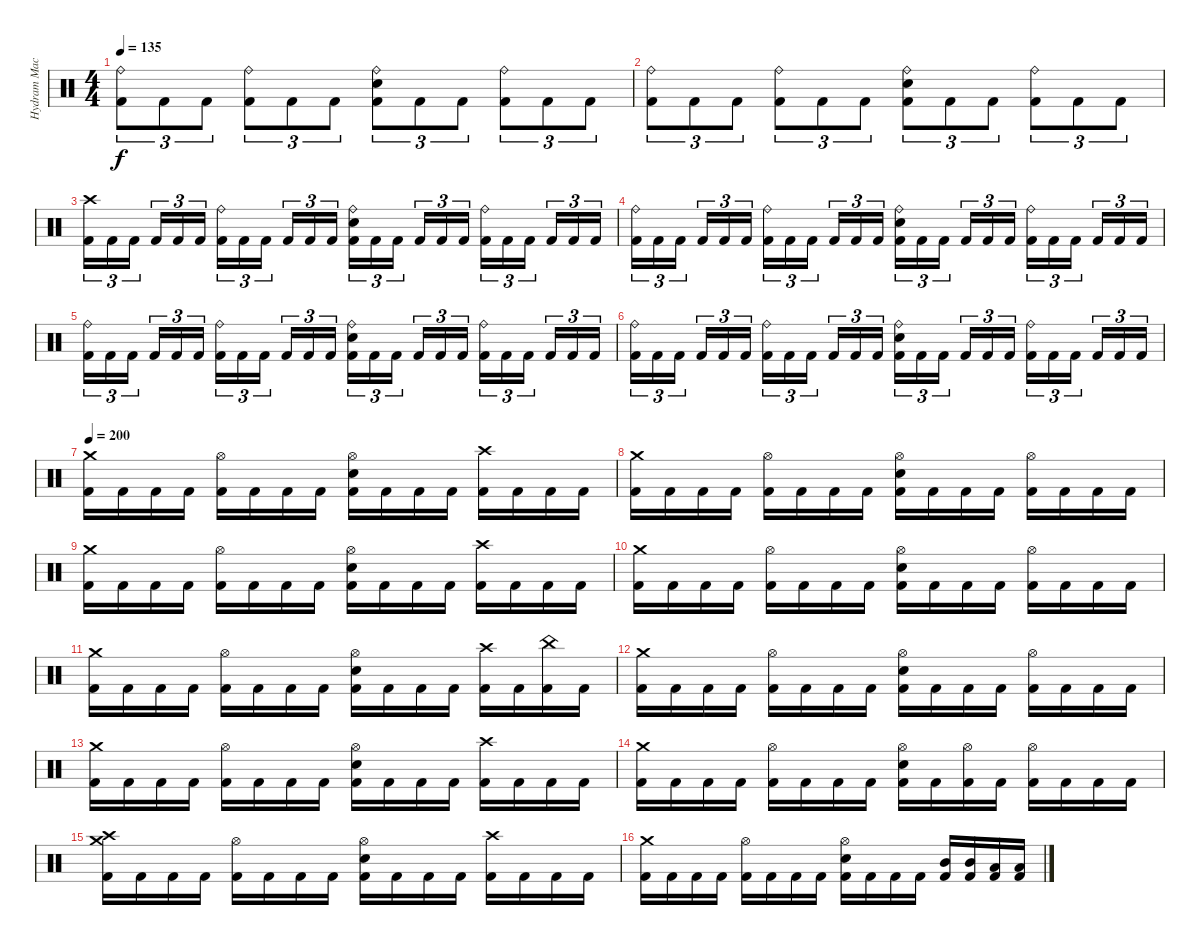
\track ("Hydram Machine" "Hydram Mac") {instrument percussion}
\staff {score}
\articulation defaults
\ts (4 4)
\tempo 135
\clef neutral
\ks c
("Ride (bell)" "Kick (hit) 2").8{tu (3 2) dy f} "Kick (hit) 2".8{tu (3 2)} "Kick (hit) 2".8{tu (3 2)} ("Ride (bell)" "Kick (hit) 2").8{tu (3 2)} "Kick (hit) 2".8{tu (3 2)} "Kick (hit) 2".8{tu (3 2)} ("Ride (bell)" "Electric Snare (hit)" "Kick (hit) 2").8{tu (3 2)} "Kick (hit) 2".8{tu (3 2)} "Kick (hit) 2".8{tu (3 2)} ("Ride (bell)" "Kick (hit) 2").8{tu (3 2)} "Kick (hit) 2".8{tu (3 2)} "Kick (hit) 2".8{tu (3 2)} |
("Ride (bell)" "Kick (hit) 2").8{tu (3 2)} "Kick (hit) 2".8{tu (3 2)} "Kick (hit) 2".8{tu (3 2)} ("Ride (bell)" "Kick (hit) 2").8{tu (3 2)} "Kick (hit) 2".8{tu (3 2)} "Kick (hit) 2".8{tu (3 2)} ("Ride (bell)" "Electric Snare (hit)" "Kick (hit) 2").8{tu (3 2)} "Kick (hit) 2".8{tu (3 2)} "Kick (hit) 2".8{tu (3 2)} ("Ride (bell)" "Kick (hit) 2").8{tu (3 2)} "Kick (hit) 2".8{tu (3 2)} "Kick (hit) 2".8{tu (3 2)} |
("Crash high (hit)" "Kick (hit) 2").16{tu (3 2)} "Kick (hit) 2".16{tu (3 2)} "Kick (hit) 2".16{tu (3 2) beam splitsecondary} "Kick (hit) 2".16{tu (3 2)} "Kick (hit) 2".16{tu (3 2)} "Kick (hit) 2".16{tu (3 2)} ("Ride (bell)" "Kick (hit) 2").16{tu (3 2)} "Kick (hit) 2".16{tu (3 2)} "Kick (hit) 2".16{tu (3 2) beam splitsecondary} "Kick (hit) 2".16{tu (3 2)} "Kick (hit) 2".16{tu (3 2)} "Kick (hit) 2".16{tu (3 2)} ("Ride (bell)" "Electric Snare (hit)" "Kick (hit) 2").16{tu (3 2)} "Kick (hit) 2".16{tu (3 2)} "Kick (hit) 2".16{tu (3 2) beam splitsecondary} "Kick (hit) 2".16{tu (3 2)} "Kick (hit) 2".16{tu (3 2)} "Kick (hit) 2".16{tu (3 2)} ("Ride (bell)" "Kick (hit) 2").16{tu (3 2)} "Kick (hit) 2".16{tu (3 2)} "Kick (hit) 2".16{tu (3 2) beam splitsecondary} "Kick (hit) 2".16{tu (3 2)} "Kick (hit) 2".16{tu (3 2)} "Kick (hit) 2".16{tu (3 2)} |
("Ride (bell)" "Kick (hit) 2").16{tu (3 2)} "Kick (hit) 2".16{tu (3 2)} "Kick (hit) 2".16{tu (3 2) beam splitsecondary} "Kick (hit) 2".16{tu (3 2)} "Kick (hit) 2".16{tu (3 2)} "Kick (hit) 2".16{tu (3 2)} ("Ride (bell)" "Kick (hit) 2").16{tu (3 2)} "Kick (hit) 2".16{tu (3 2)} "Kick (hit) 2".16{tu (3 2) beam splitsecondary} "Kick (hit) 2".16{tu (3 2)} "Kick (hit) 2".16{tu (3 2)} "Kick (hit) 2".16{tu (3 2)} ("Ride (bell)" "Electric Snare (hit)" "Kick (hit) 2").16{tu (3 2)} "Kick (hit) 2".16{tu (3 2)} "Kick (hit) 2".16{tu (3 2) beam splitsecondary} "Kick (hit) 2".16{tu (3 2)} "Kick (hit) 2".16{tu (3 2)} "Kick (hit) 2".16{tu (3 2)} ("Ride (bell)" "Kick (hit) 2").16{tu (3 2)} "Kick (hit) 2".16{tu (3 2)} "Kick (hit) 2".16{tu (3 2) beam splitsecondary} "Kick (hit) 2".16{tu (3 2)} "Kick (hit) 2".16{tu (3 2)} "Kick (hit) 2".16{tu (3 2)} |
("Ride (bell)" "Kick (hit) 2").16{tu (3 2)} "Kick (hit) 2".16{tu (3 2)} "Kick (hit) 2".16{tu (3 2) beam splitsecondary} "Kick (hit) 2".16{tu (3 2)} "Kick (hit) 2".16{tu (3 2)} "Kick (hit) 2".16{tu (3 2)} ("Ride (bell)" "Kick (hit) 2").16{tu (3 2)} "Kick (hit) 2".16{tu (3 2)} "Kick (hit) 2".16{tu (3 2) beam splitsecondary} "Kick (hit) 2".16{tu (3 2)} "Kick (hit) 2".16{tu (3 2)} "Kick (hit) 2".16{tu (3 2)} ("Ride (bell)" "Electric Snare (hit)" "Kick (hit) 2").16{tu (3 2)} "Kick (hit) 2".16{tu (3 2)} "Kick (hit) 2".16{tu (3 2) beam splitsecondary} "Kick (hit) 2".16{tu (3 2)} "Kick (hit) 2".16{tu (3 2)} "Kick (hit) 2".16{tu (3 2)} ("Ride (bell)" "Kick (hit) 2").16{tu (3 2)} "Kick (hit) 2".16{tu (3 2)} "Kick (hit) 2".16{tu (3 2) beam splitsecondary} "Kick (hit) 2".16{tu (3 2)} "Kick (hit) 2".16{tu (3 2)} "Kick (hit) 2".16{tu (3 2)} |
("Ride (bell)" "Kick (hit) 2").16{tu (3 2)} "Kick (hit) 2".16{tu (3 2)} "Kick (hit) 2".16{tu (3 2) beam splitsecondary} "Kick (hit) 2".16{tu (3 2)} "Kick (hit) 2".16{tu (3 2)} "Kick (hit) 2".16{tu (3 2)} ("Ride (bell)" "Kick (hit) 2").16{tu (3 2)} "Kick (hit) 2".16{tu (3 2)} "Kick (hit) 2".16{tu (3 2) beam splitsecondary} "Kick (hit) 2".16{tu (3 2)} "Kick (hit) 2".16{tu (3 2)} "Kick (hit) 2".16{tu (3 2)} ("Ride (bell)" "Electric Snare (hit)" "Kick (hit) 2").16{tu (3 2)} "Kick (hit) 2".16{tu (3 2)} "Kick (hit) 2".16{tu (3 2) beam splitsecondary} "Kick (hit) 2".16{tu (3 2)} "Kick (hit) 2".16{tu (3 2)} "Kick (hit) 2".16{tu (3 2)} ("Ride (bell)" "Kick (hit) 2").16{tu (3 2)} "Kick (hit) 2".16{tu (3 2)} "Kick (hit) 2".16{tu (3 2) beam splitsecondary} "Kick (hit) 2".16{tu (3 2)} "Kick (hit) 2".16{tu (3 2)} "Kick (hit) 2".16{tu (3 2)} |
\tempo 200
("Crash medium (hit)" "Kick (hit) 2").16 "Kick (hit) 2".16 "Kick (hit) 2".16 "Kick (hit) 2".16 ("Hi-Hat (open)" "Kick (hit) 2").16 "Kick (hit) 2".16 "Kick (hit) 2".16 "Kick (hit) 2".16 ("Hi-Hat (open)" "Electric Snare (hit)" "Kick (hit) 2").16 "Kick (hit) 2".16 "Kick (hit) 2".16 "Kick (hit) 2".16 ("Crash high (hit)" "Kick (hit) 2").16 "Kick (hit) 2".16 "Kick (hit) 2".16 "Kick (hit) 2".16 |
("Crash medium (hit)" "Kick (hit) 2").16 "Kick (hit) 2".16 "Kick (hit) 2".16 "Kick (hit) 2".16 ("Hi-Hat (open)" "Kick (hit) 2").16 "Kick (hit) 2".16 "Kick (hit) 2".16 "Kick (hit) 2".16 ("Hi-Hat (open)" "Electric Snare (hit)" "Kick (hit) 2").16 "Kick (hit) 2".16 "Kick (hit) 2".16 "Kick (hit) 2".16 ("Hi-Hat (open)" "Kick (hit) 2").16 "Kick (hit) 2".16 "Kick (hit) 2".16 "Kick (hit) 2".16 |
("Crash medium (hit)" "Kick (hit) 2").16 "Kick (hit) 2".16 "Kick (hit) 2".16 "Kick (hit) 2".16 ("Hi-Hat (open)" "Kick (hit) 2").16 "Kick (hit) 2".16 "Kick (hit) 2".16 "Kick (hit) 2".16 ("Hi-Hat (open)" "Electric Snare (hit)" "Kick (hit) 2").16 "Kick (hit) 2".16 "Kick (hit) 2".16 "Kick (hit) 2".16 ("Crash high (hit)" "Kick (hit) 2").16 "Kick (hit) 2".16 "Kick (hit) 2".16 "Kick (hit) 2".16 |
("Crash medium (hit)" "Kick (hit) 2").16 "Kick (hit) 2".16 "Kick (hit) 2".16 "Kick (hit) 2".16 ("Hi-Hat (open)" "Kick (hit) 2").16 "Kick (hit) 2".16 "Kick (hit) 2".16 "Kick (hit) 2".16 ("Hi-Hat (open)" "Electric Snare (hit)" "Kick (hit) 2").16 "Kick (hit) 2".16 "Kick (hit) 2".16 "Kick (hit) 2".16 ("Hi-Hat (open)" "Kick (hit) 2").16 "Kick (hit) 2".16 "Kick (hit) 2".16 "Kick (hit) 2".16 |
("Crash medium (hit)" "Kick (hit) 2").16 "Kick (hit) 2".16 "Kick (hit) 2".16 "Kick (hit) 2".16 ("Hi-Hat (open)" "Kick (hit) 2").16 "Kick (hit) 2".16 "Kick (hit) 2".16 "Kick (hit) 2".16 ("Hi-Hat (open)" "Electric Snare (hit)" "Kick (hit) 2").16 "Kick (hit) 2".16 "Kick (hit) 2".16 "Kick (hit) 2".16 ("Crash high (hit)" "Kick (hit) 2").16 "Kick (hit) 2".16 ("China (hit)" "Kick (hit) 2").16 "Kick (hit) 2".16 |
("Crash medium (hit)" "Kick (hit) 2").16 "Kick (hit) 2".16 "Kick (hit) 2".16 "Kick (hit) 2".16 ("Hi-Hat (open)" "Kick (hit) 2").16 "Kick (hit) 2".16 "Kick (hit) 2".16 "Kick (hit) 2".16 ("Hi-Hat (open)" "Electric Snare (hit)" "Kick (hit) 2").16 "Kick (hit) 2".16 "Kick (hit) 2".16 "Kick (hit) 2".16 ("Hi-Hat (open)" "Kick (hit) 2").16 "Kick (hit) 2".16 "Kick (hit) 2".16 "Kick (hit) 2".16 |
("Crash medium (hit)" "Kick (hit) 2").16 "Kick (hit) 2".16 "Kick (hit) 2".16 "Kick (hit) 2".16 ("Hi-Hat (open)" "Kick (hit) 2").16 "Kick (hit) 2".16 "Kick (hit) 2".16 "Kick (hit) 2".16 ("Hi-Hat (open)" "Electric Snare (hit)" "Kick (hit) 2").16 "Kick (hit) 2".16 "Kick (hit) 2".16 "Kick (hit) 2".16 ("Crash high (hit)" "Kick (hit) 2").16 "Kick (hit) 2".16 "Kick (hit) 2".16 "Kick (hit) 2".16 |
("Crash medium (hit)" "Kick (hit) 2").16 "Kick (hit) 2".16 "Kick (hit) 2".16 "Kick (hit) 2".16 ("Hi-Hat (open)" "Kick (hit) 2").16 "Kick (hit) 2".16 "Kick (hit) 2".16 "Kick (hit) 2".16 ("Hi-Hat (open)" "Electric Snare (hit)" "Kick (hit) 2").16 "Kick (hit) 2".16 ("Hi-Hat (open)" "Kick (hit) 2").16 "Kick (hit) 2".16 ("Hi-Hat (open)" "Kick (hit) 2").16 "Kick (hit) 2".16 "Kick (hit) 2".16 "Kick (hit) 2".16 |
("Crash medium (hit)" "Crash high (hit)" "Kick (hit) 2").16 "Kick (hit) 2".16 "Kick (hit) 2".16 "Kick (hit) 2".16 ("Hi-Hat (open)" "Kick (hit) 2").16 "Kick (hit) 2".16 "Kick (hit) 2".16 "Kick (hit) 2".16 ("Hi-Hat (open)" "Electric Snare (hit)" "Kick (hit) 2").16 "Kick (hit) 2".16 "Kick (hit) 2".16 "Kick (hit) 2".16 ("Crash high (hit)" "Kick (hit) 2").16 "Kick (hit) 2".16 "Kick (hit) 2".16 "Kick (hit) 2".16 |
("Crash medium (hit)" "Kick (hit) 2").16 "Kick (hit) 2".16 "Kick (hit) 2".16 "Kick (hit) 2".16 ("Hi-Hat (open)" "Kick (hit) 2").16 "Kick (hit) 2".16 "Kick (hit) 2".16 "Kick (hit) 2".16 ("Hi-Hat (open)" "Electric Snare (hit)" "Kick (hit) 2").16 "Kick (hit) 2".16 "Kick (hit) 2".16 "Kick (hit) 2".16 ("Mid Tom (hit)" "Kick (hit) 2").16 ("Mid Tom (hit)" "Kick (hit) 2").16 ("Low Tom (hit)" "Kick (hit) 2").16 ("Low Tom (hit)" "Kick (hit) 2").16
